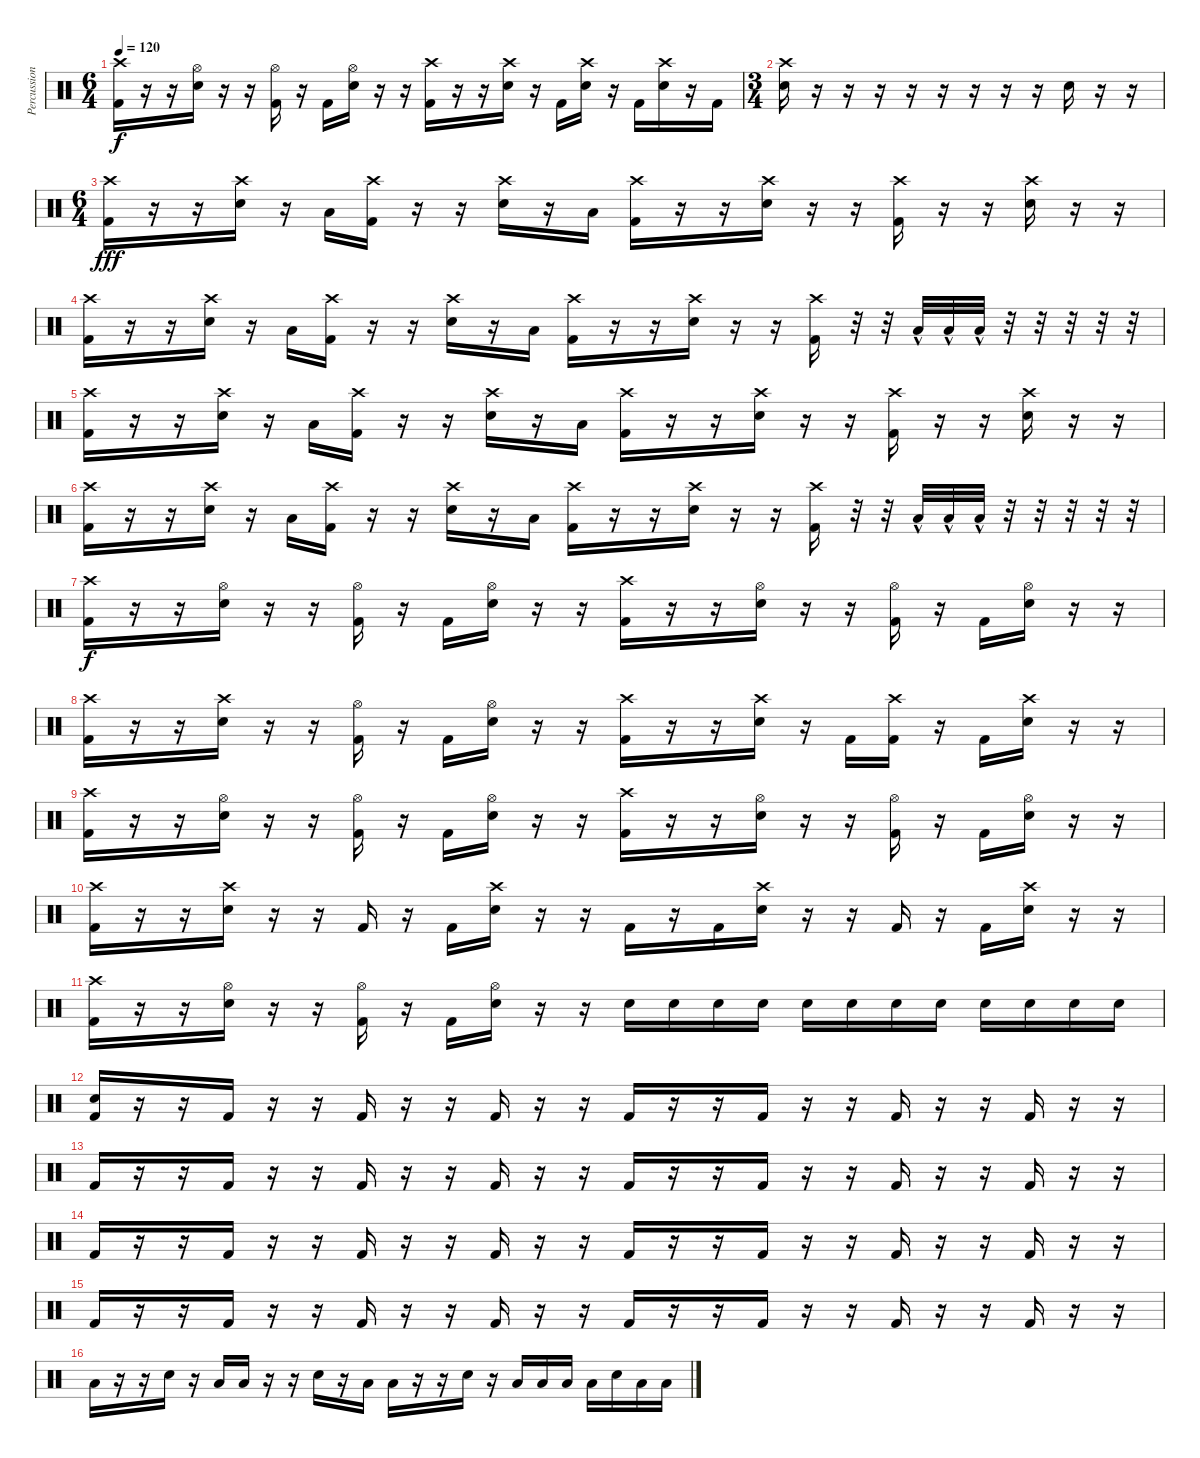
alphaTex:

\track ("Percussion" "Percussion") {instrument percussion}
\staff {score}
\articulation defaults
\ts (6 4)
\tempo 120
\clef neutral
\ks c
("Kick (hit) 2" "Crash high (hit)").16{dy f} r.16 r.16 ("Electric Snare (hit)" "Hi-Hat (open)").16 r.16 r.16 ("Kick (hit) 2" "Hi-Hat (open)").16 r.16 "Kick (hit) 2".16 ("Electric Snare (hit)" "Hi-Hat (open)").16 r.16 r.16 ("Kick (hit) 2" "Crash high (hit)").16 r.16 r.16 ("Electric Snare (hit)" "Crash high (hit)").16 r.16 "Kick (hit) 2".16 ("Electric Snare (hit)" "Crash high (hit)").16 r.16 "Kick (hit) 2".16 ("Electric Snare (hit)" "Crash high (hit)").16 r.16 "Kick (hit) 2".16 |
\ts (3 4)
("Electric Snare (hit)" "Crash high (hit)").16 r.16 r.16 r.16 r.16 r.16 r.16 r.16 r.16 "Electric Snare (hit)".16 r.16 r.16 |
\ts (6 4)
("Kick (hit) 2" "Crash high (hit)").16{dy fff} r.16 r.16 ("Electric Snare (hit)" "Crash high (hit)").16 r.16 "Low Floor Tom (hit)".16 ("Kick (hit) 2" "Crash high (hit)").16 r.16 r.16 ("Electric Snare (hit)" "Crash high (hit)").16 r.16 "Low Floor Tom (hit)".16 ("Kick (hit) 2" "Crash high (hit)").16 r.16 r.16 ("Electric Snare (hit)" "Crash high (hit)").16 r.16 r.16 ("Kick (hit) 2" "Crash high (hit)").16 r.16 r.16 ("Electric Snare (hit)" "Crash high (hit)").16 r.16 r.16 |
("Kick (hit) 2" "Crash high (hit)").16 r.16 r.16 ("Electric Snare (hit)" "Crash high (hit)").16 r.16 "Low Floor Tom (hit)".16 ("Kick (hit) 2" "Crash high (hit)").16 r.16 r.16 ("Electric Snare (hit)" "Crash high (hit)").16 r.16 "Low Floor Tom (hit)".16 ("Kick (hit) 2" "Crash high (hit)").16 r.16 r.16 ("Electric Snare (hit)" "Crash high (hit)").16 r.16 r.16 ("Kick (hit) 2" "Crash high (hit)").16 r.32 r.32 "Low Floor Tom (hit)"{hac}.32 "Low Floor Tom (hit)"{hac}.32 "Low Floor Tom (hit)"{hac}.32 r.32 r.32 r.32 r.32 r.32 |
("Kick (hit) 2" "Crash high (hit)").16 r.16 r.16 ("Electric Snare (hit)" "Crash high (hit)").16 r.16 "Low Floor Tom (hit)".16 ("Kick (hit) 2" "Crash high (hit)").16 r.16 r.16 ("Electric Snare (hit)" "Crash high (hit)").16 r.16 "Low Floor Tom (hit)".16 ("Kick (hit) 2" "Crash high (hit)").16 r.16 r.16 ("Electric Snare (hit)" "Crash high (hit)").16 r.16 r.16 ("Kick (hit) 2" "Crash high (hit)").16 r.16 r.16 ("Electric Snare (hit)" "Crash high (hit)").16 r.16 r.16 |
("Kick (hit) 2" "Crash high (hit)").16 r.16 r.16 ("Electric Snare (hit)" "Crash high (hit)").16 r.16 "Low Floor Tom (hit)".16 ("Kick (hit) 2" "Crash high (hit)").16 r.16 r.16 ("Electric Snare (hit)" "Crash high (hit)").16 r.16 "Low Floor Tom (hit)".16 ("Kick (hit) 2" "Crash high (hit)").16 r.16 r.16 ("Electric Snare (hit)" "Crash high (hit)").16 r.16 r.16 ("Kick (hit) 2" "Crash high (hit)").16 r.32 r.32 "Low Floor Tom (hit)"{hac}.32 "Low Floor Tom (hit)"{hac}.32 "Low Floor Tom (hit)"{hac}.32 r.32 r.32 r.32 r.32 r.32 |
("Kick (hit) 2" "Crash high (hit)").16{dy f} r.16 r.16 ("Electric Snare (hit)" "Hi-Hat (open)").16 r.16 r.16 ("Kick (hit) 2" "Hi-Hat (open)").16 r.16 "Kick (hit) 2".16 ("Electric Snare (hit)" "Hi-Hat (open)").16 r.16 r.16 ("Kick (hit) 2" "Crash high (hit)").16 r.16 r.16 ("Electric Snare (hit)" "Hi-Hat (open)").16 r.16 r.16 ("Kick (hit) 2" "Hi-Hat (open)").16 r.16 "Kick (hit) 2".16 ("Electric Snare (hit)" "Hi-Hat (open)").16 r.16 r.16 |
("Kick (hit) 2" "Crash high (hit)").16 r.16 r.16 ("Electric Snare (hit)" "Crash high (hit)").16 r.16 r.16 ("Kick (hit) 2" "Hi-Hat (open)").16 r.16 "Kick (hit) 2".16 ("Electric Snare (hit)" "Hi-Hat (open)").16 r.16 r.16 ("Kick (hit) 2" "Crash high (hit)").16 r.16 r.16 ("Electric Snare (hit)" "Crash high (hit)").16 r.16 "Kick (hit) 2".16 ("Kick (hit) 2" "Crash high (hit)").16 r.16 "Kick (hit) 2".16 ("Electric Snare (hit)" "Crash high (hit)").16 r.16 r.16 |
("Kick (hit) 2" "Crash high (hit)").16 r.16 r.16 ("Electric Snare (hit)" "Hi-Hat (open)").16 r.16 r.16 ("Kick (hit) 2" "Hi-Hat (open)").16 r.16 "Kick (hit) 2".16 ("Electric Snare (hit)" "Hi-Hat (open)").16 r.16 r.16 ("Kick (hit) 2" "Crash high (hit)").16 r.16 r.16 ("Electric Snare (hit)" "Hi-Hat (open)").16 r.16 r.16 ("Kick (hit) 2" "Hi-Hat (open)").16 r.16 "Kick (hit) 2".16 ("Electric Snare (hit)" "Hi-Hat (open)").16 r.16 r.16 |
("Kick (hit) 2" "Crash high (hit)").16 r.16 r.16 ("Electric Snare (hit)" "Crash high (hit)").16 r.16 r.16 "Kick (hit) 2".16 r.16 "Kick (hit) 2".16 ("Electric Snare (hit)" "Crash high (hit)").16 r.16 r.16 "Kick (hit) 2".16 r.16 "Kick (hit) 2".16 ("Electric Snare (hit)" "Crash high (hit)").16 r.16 r.16 "Kick (hit) 2".16 r.16 "Kick (hit) 2".16 ("Electric Snare (hit)" "Crash high (hit)").16 r.16 r.16 |
("Kick (hit) 2" "Crash high (hit)").16 r.16 r.16 ("Electric Snare (hit)" "Hi-Hat (open)").16 r.16 r.16 ("Kick (hit) 2" "Hi-Hat (open)").16 r.16 "Kick (hit) 2".16 ("Electric Snare (hit)" "Hi-Hat (open)").16 r.16 r.16 "Electric Snare (hit)".16 "Electric Snare (hit)".16 "Electric Snare (hit)".16 "Electric Snare (hit)".16 "Electric Snare (hit)".16 "Electric Snare (hit)".16 "Electric Snare (hit)".16 "Electric Snare (hit)".16 "Electric Snare (hit)".16 "Electric Snare (hit)".16 "Electric Snare (hit)".16 "Electric Snare (hit)".16 |
("Electric Snare (hit)" "Kick (hit) 2").16 r.16 r.16 "Kick (hit) 2".16 r.16 r.16 "Kick (hit) 2".16 r.16 r.16 "Kick (hit) 2".16 r.16 r.16 "Kick (hit) 2".16 r.16 r.16 "Kick (hit) 2".16 r.16 r.16 "Kick (hit) 2".16 r.16 r.16 "Kick (hit) 2".16 r.16 r.16 |
"Kick (hit) 2".16 r.16 r.16 "Kick (hit) 2".16 r.16 r.16 "Kick (hit) 2".16 r.16 r.16 "Kick (hit) 2".16 r.16 r.16 "Kick (hit) 2".16 r.16 r.16 "Kick (hit) 2".16 r.16 r.16 "Kick (hit) 2".16 r.16 r.16 "Kick (hit) 2".16 r.16 r.16 |
"Kick (hit) 2".16 r.16 r.16 "Kick (hit) 2".16 r.16 r.16 "Kick (hit) 2".16 r.16 r.16 "Kick (hit) 2".16 r.16 r.16 "Kick (hit) 2".16 r.16 r.16 "Kick (hit) 2".16 r.16 r.16 "Kick (hit) 2".16 r.16 r.16 "Kick (hit) 2".16 r.16 r.16 |
"Kick (hit) 2".16 r.16 r.16 "Kick (hit) 2".16 r.16 r.16 "Kick (hit) 2".16 r.16 r.16 "Kick (hit) 2".16 r.16 r.16 "Kick (hit) 2".16 r.16 r.16 "Kick (hit) 2".16 r.16 r.16 "Kick (hit) 2".16 r.16 r.16 "Kick (hit) 2".16 r.16 r.16 |
"Low Floor Tom (hit)".16 r.16 r.16 "Electric Snare (hit)".16 r.16 "Low Floor Tom (hit)".16 "Low Floor Tom (hit)".16 r.16 r.16 "Electric Snare (hit)".16 r.16 "Low Floor Tom (hit)".16 "Low Floor Tom (hit)".16 r.16 r.16 "Electric Snare (hit)".16 r.16 "Low Floor Tom (hit)".16 "Low Floor Tom (hit)".16 "Low Floor Tom (hit)".16 "Low Floor Tom (hit)".16 "Electric Snare (hit)".16 "Low Floor Tom (hit)".16 "Low Floor Tom (hit)".16
